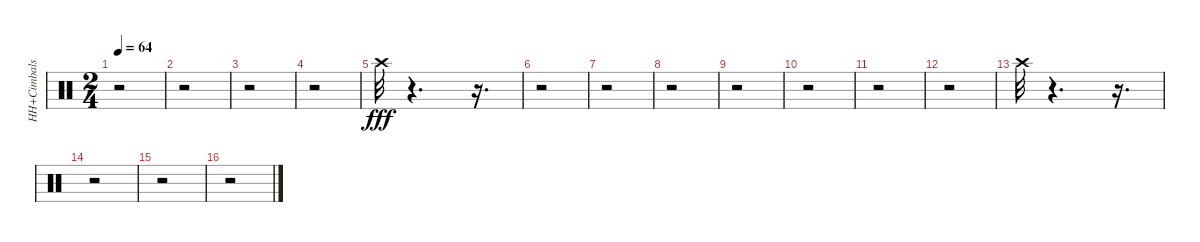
\track ("HH+Cimbals" "HH+Cimbals") {instrument percussion}
\staff {score}
\articulation defaults
\ts (2 4)
\tempo 64
\clef neutral
\ks c
r.2{dy fff} |
r.2 |
r.2 |
r.2 |
"Crash high (hit)".32 r.4{d} r.16{d} |
r.2 |
r.2 |
r.2 |
r.2 |
r.2 |
r.2 |
r.2 |
"Crash high (hit)".32 r.4{d} r.16{d} |
r.2 |
r.2 |
r.2
